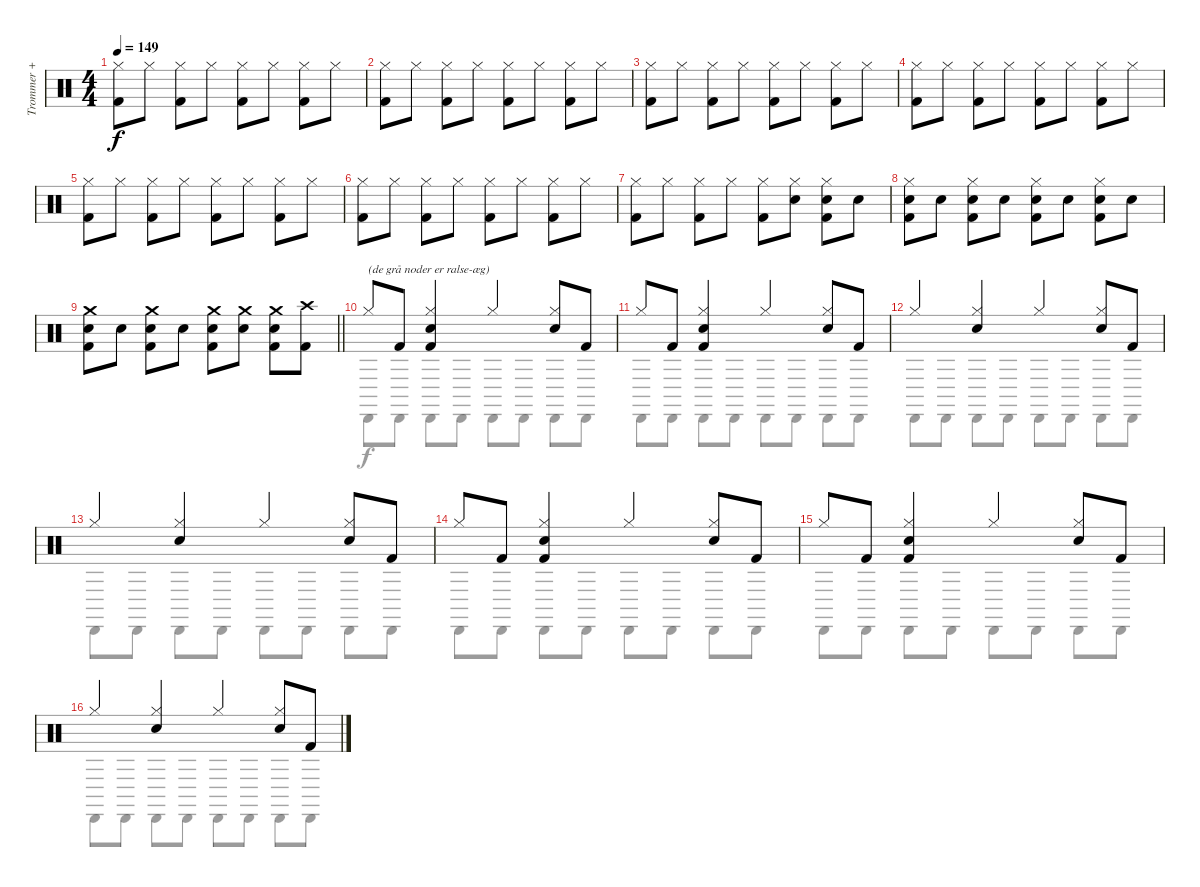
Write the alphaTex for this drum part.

\track ("Trommer + rasle-æg" "Trommer + ") {instrument percussion}
\staff {score}
\articulation defaults
\voice
\ts (4 4)
\tempo 149
\clef neutral
\ks c
("Hi-Hat (closed)" "Kick (hit) 2").8{dy f} "Hi-Hat (closed)".8 ("Hi-Hat (closed)" "Kick (hit) 2").8 "Hi-Hat (closed)".8 ("Hi-Hat (closed)" "Kick (hit) 2").8 "Hi-Hat (closed)".8 ("Hi-Hat (closed)" "Kick (hit) 2").8 "Hi-Hat (closed)".8 |
("Hi-Hat (closed)" "Kick (hit) 2").8 "Hi-Hat (closed)".8 ("Hi-Hat (closed)" "Kick (hit) 2").8 "Hi-Hat (closed)".8 ("Hi-Hat (closed)" "Kick (hit) 2").8 "Hi-Hat (closed)".8 ("Hi-Hat (closed)" "Kick (hit) 2").8 "Hi-Hat (closed)".8 |
("Hi-Hat (closed)" "Kick (hit) 2").8 "Hi-Hat (closed)".8 ("Hi-Hat (closed)" "Kick (hit) 2").8 "Hi-Hat (closed)".8 ("Hi-Hat (closed)" "Kick (hit) 2").8 "Hi-Hat (closed)".8 ("Hi-Hat (closed)" "Kick (hit) 2").8 "Hi-Hat (closed)".8 |
("Hi-Hat (closed)" "Kick (hit) 2").8 "Hi-Hat (closed)".8 ("Hi-Hat (closed)" "Kick (hit) 2").8 "Hi-Hat (closed)".8 ("Hi-Hat (closed)" "Kick (hit) 2").8 "Hi-Hat (closed)".8 ("Hi-Hat (closed)" "Kick (hit) 2").8 "Hi-Hat (closed)".8 |
("Hi-Hat (closed)" "Kick (hit) 2").8 "Hi-Hat (closed)".8 ("Hi-Hat (closed)" "Kick (hit) 2").8 "Hi-Hat (closed)".8 ("Hi-Hat (closed)" "Kick (hit) 2").8 "Hi-Hat (closed)".8 ("Hi-Hat (closed)" "Kick (hit) 2").8 "Hi-Hat (closed)".8 |
("Hi-Hat (closed)" "Kick (hit) 2").8 "Hi-Hat (closed)".8 ("Hi-Hat (closed)" "Kick (hit) 2").8 "Hi-Hat (closed)".8 ("Hi-Hat (closed)" "Kick (hit) 2").8 "Hi-Hat (closed)".8 ("Hi-Hat (closed)" "Kick (hit) 2").8 "Hi-Hat (closed)".8 |
("Hi-Hat (closed)" "Kick (hit) 2").8 "Hi-Hat (closed)".8 ("Hi-Hat (closed)" "Kick (hit) 2").8 "Hi-Hat (closed)".8 ("Hi-Hat (closed)" "Kick (hit) 2").8 ("Hi-Hat (closed)" "Snare (hit) 2").8 ("Hi-Hat (closed)" "Snare (hit) 2" "Kick (hit) 2").8 "Snare (hit) 2".8 |
("Hi-Hat (closed)" "Snare (hit) 2" "Kick (hit) 2").8 "Snare (hit) 2".8 ("Hi-Hat (closed)" "Snare (hit) 2" "Kick (hit) 2").8 "Snare (hit) 2".8 ("Hi-Hat (closed)" "Snare (hit) 2" "Kick (hit) 2").8 "Snare (hit) 2".8 ("Hi-Hat (closed)" "Snare (hit) 2" "Kick (hit) 2").8 "Snare (hit) 2".8 |
\barLineRight lightlight
("Crash medium (hit)" "Snare (hit) 2" "Kick (hit) 2").8 "Snare (hit) 2".8 ("Crash medium (hit)" "Snare (hit) 2" "Kick (hit) 2").8 "Snare (hit) 2".8 ("Crash medium (hit)" "Snare (hit) 2" "Kick (hit) 2").8 ("Crash medium (hit)" "Snare (hit) 2").8 ("Crash medium (hit)" "Snare (hit) 2" "Kick (hit) 2").8 ("Crash high (hit)" "Kick (hit) 2").8 |
"Hi-Hat (closed)".8{txt "(de grå noder er ralse-æg)"} "Kick (hit) 2".8 ("Hi-Hat (closed)" "Snare (hit) 2" "Kick (hit) 2").4 "Hi-Hat (closed)".4 ("Hi-Hat (closed)" "Snare (hit) 2").8 "Kick (hit) 2".8 |
"Hi-Hat (closed)".8 "Kick (hit) 2".8 ("Hi-Hat (closed)" "Snare (hit) 2" "Kick (hit) 2").4 "Hi-Hat (closed)".4 ("Hi-Hat (closed)" "Snare (hit) 2").8 "Kick (hit) 2".8 |
"Hi-Hat (closed)".4 ("Hi-Hat (closed)" "Snare (hit) 2").4 "Hi-Hat (closed)".4 ("Hi-Hat (closed)" "Snare (hit) 2").8 "Kick (hit) 2".8 |
"Hi-Hat (closed)".4 ("Hi-Hat (closed)" "Snare (hit) 2").4 "Hi-Hat (closed)".4 ("Hi-Hat (closed)" "Snare (hit) 2").8 "Kick (hit) 2".8 |
"Hi-Hat (closed)".8 "Kick (hit) 2".8 ("Hi-Hat (closed)" "Snare (hit) 2" "Kick (hit) 2").4 "Hi-Hat (closed)".4 ("Hi-Hat (closed)" "Snare (hit) 2").8 "Kick (hit) 2".8 |
"Hi-Hat (closed)".8 "Kick (hit) 2".8 ("Hi-Hat (closed)" "Snare (hit) 2" "Kick (hit) 2").4 "Hi-Hat (closed)".4 ("Hi-Hat (closed)" "Snare (hit) 2").8 "Kick (hit) 2".8 |
"Hi-Hat (closed)".4 ("Hi-Hat (closed)" "Snare (hit) 2").4 "Hi-Hat (closed)".4 ("Hi-Hat (closed)" "Snare (hit) 2").8 "Kick (hit) 2".8
\voice
\clef neutral
\ottava regular
\simile none
\ks c
|
|
|
|
|
|
|
|
\barLineRight lightlight
|
"Cabasa (hit)".8 "Cabasa (hit)".8 "Cabasa (hit)".8 "Cabasa (hit)".8 "Cabasa (hit)".8 "Cabasa (hit)".8 "Cabasa (hit)".8 "Cabasa (hit)".8 |
"Cabasa (hit)".8 "Cabasa (hit)".8 "Cabasa (hit)".8 "Cabasa (hit)".8 "Cabasa (hit)".8 "Cabasa (hit)".8 "Cabasa (hit)".8 "Cabasa (hit)".8 |
"Cabasa (hit)".8 "Cabasa (hit)".8 "Cabasa (hit)".8 "Cabasa (hit)".8 "Cabasa (hit)".8 "Cabasa (hit)".8 "Cabasa (hit)".8 "Cabasa (hit)".8 |
"Cabasa (hit)".8 "Cabasa (hit)".8 "Cabasa (hit)".8 "Cabasa (hit)".8 "Cabasa (hit)".8 "Cabasa (hit)".8 "Cabasa (hit)".8 "Cabasa (hit)".8 |
"Cabasa (hit)".8 "Cabasa (hit)".8 "Cabasa (hit)".8 "Cabasa (hit)".8 "Cabasa (hit)".8 "Cabasa (hit)".8 "Cabasa (hit)".8 "Cabasa (hit)".8 |
"Cabasa (hit)".8 "Cabasa (hit)".8 "Cabasa (hit)".8 "Cabasa (hit)".8 "Cabasa (hit)".8 "Cabasa (hit)".8 "Cabasa (hit)".8 "Cabasa (hit)".8 |
"Cabasa (hit)".8 "Cabasa (hit)".8 "Cabasa (hit)".8 "Cabasa (hit)".8 "Cabasa (hit)".8 "Cabasa (hit)".8 "Cabasa (hit)".8 "Cabasa (hit)".8
